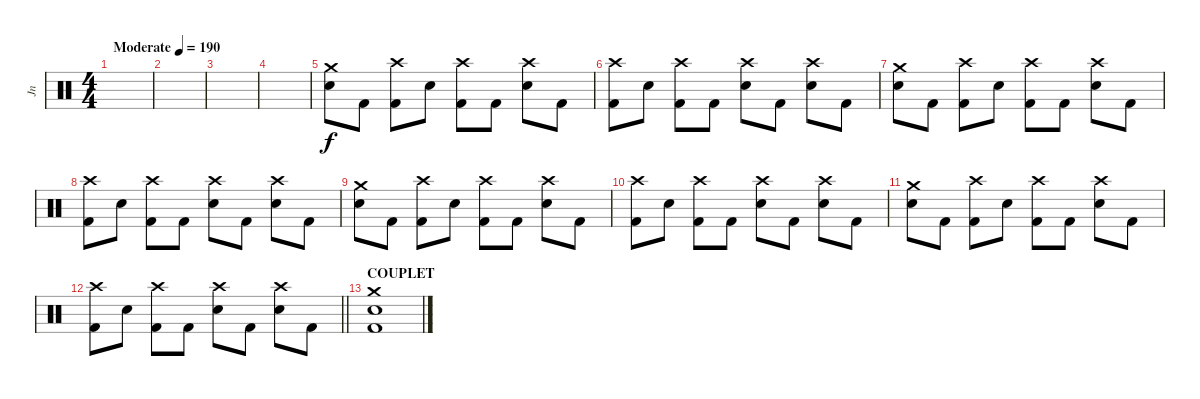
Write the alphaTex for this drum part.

\track ("Jn" "Jn") {instrument percussion}
\staff {score}
\articulation defaults
\ts (4 4)
\tempo (190 "Moderate")
\clef neutral
\ks c
|
|
|
|
("Crash medium (hit)" "Electric Snare (hit)").8 "Kick (hit) 2".8 ("Crash high (hit)" "Kick (hit) 2").8 "Electric Snare (hit)".8 ("Crash high (hit)" "Kick (hit) 2").8 "Kick (hit) 2".8 ("Crash high (hit)" "Electric Snare (hit)").8 "Kick (hit) 2".8 |
("Crash high (hit)" "Kick (hit) 2").8 "Electric Snare (hit)".8 ("Crash high (hit)" "Kick (hit) 2").8 "Kick (hit) 2".8 ("Crash high (hit)" "Electric Snare (hit)").8 "Kick (hit) 2".8 ("Crash high (hit)" "Electric Snare (hit)").8 "Kick (hit) 2".8 |
("Crash medium (hit)" "Electric Snare (hit)").8 "Kick (hit) 2".8 ("Crash high (hit)" "Kick (hit) 2").8 "Electric Snare (hit)".8 ("Crash high (hit)" "Kick (hit) 2").8 "Kick (hit) 2".8 ("Crash high (hit)" "Electric Snare (hit)").8 "Kick (hit) 2".8 |
("Crash high (hit)" "Kick (hit) 2").8 "Electric Snare (hit)".8 ("Crash high (hit)" "Kick (hit) 2").8 "Kick (hit) 2".8 ("Crash high (hit)" "Electric Snare (hit)").8 "Kick (hit) 2".8 ("Crash high (hit)" "Electric Snare (hit)").8 "Kick (hit) 2".8 |
("Crash medium (hit)" "Electric Snare (hit)").8 "Kick (hit) 2".8 ("Crash high (hit)" "Kick (hit) 2").8 "Electric Snare (hit)".8 ("Crash high (hit)" "Kick (hit) 2").8 "Kick (hit) 2".8 ("Crash high (hit)" "Electric Snare (hit)").8 "Kick (hit) 2".8 |
("Crash high (hit)" "Kick (hit) 2").8 "Electric Snare (hit)".8 ("Crash high (hit)" "Kick (hit) 2").8 "Kick (hit) 2".8 ("Crash high (hit)" "Electric Snare (hit)").8 "Kick (hit) 2".8 ("Crash high (hit)" "Electric Snare (hit)").8 "Kick (hit) 2".8 |
("Crash medium (hit)" "Electric Snare (hit)").8 "Kick (hit) 2".8 ("Crash high (hit)" "Kick (hit) 2").8 "Electric Snare (hit)".8 ("Crash high (hit)" "Kick (hit) 2").8 "Kick (hit) 2".8 ("Crash high (hit)" "Electric Snare (hit)").8 "Kick (hit) 2".8 |
\barLineRight lightlight
("Crash high (hit)" "Kick (hit) 2").8 "Electric Snare (hit)".8 ("Crash high (hit)" "Kick (hit) 2").8 "Kick (hit) 2".8 ("Crash high (hit)" "Electric Snare (hit)").8 "Kick (hit) 2".8 ("Crash high (hit)" "Electric Snare (hit)").8 "Kick (hit) 2".8 |
\section ("" "COUPLET")
("Crash medium (hit)" "Electric Snare (hit)" "Kick (hit) 2").1
